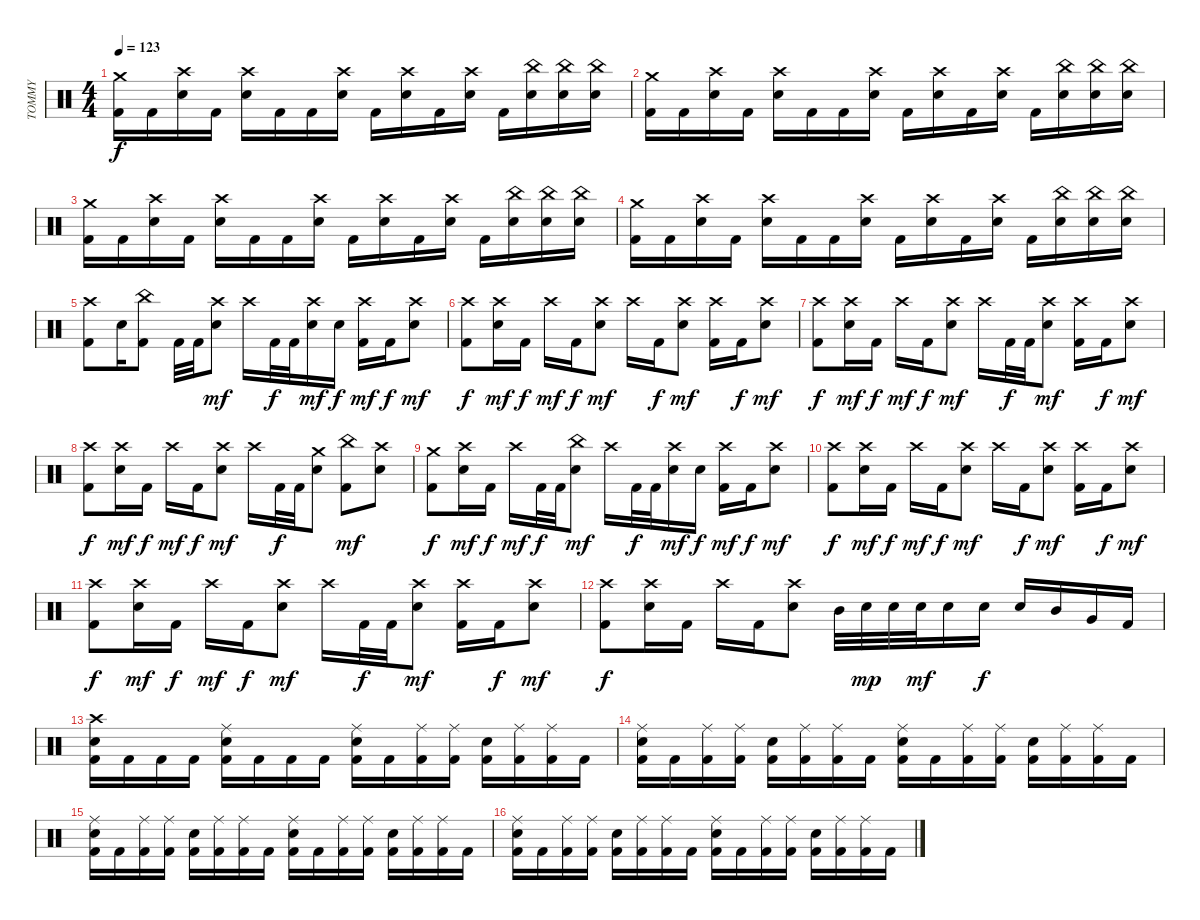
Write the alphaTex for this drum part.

\track ("TOMMY" "TOMMY") {instrument percussion}
\staff {score}
\articulation defaults
\ts (4 4)
\tempo 123
\clef neutral
\ks c
("Kick (hit) 2" "Crash medium (hit)").16{dy f} "Kick (hit) 2".16 ("Snare (hit) 2" "Crash high (hit)").16 "Kick (hit) 2".16 ("Snare (hit) 2" "Crash high (hit)").16 "Kick (hit) 2".16 "Kick (hit) 2".16 ("Snare (hit) 2" "Crash high (hit)").16 "Kick (hit) 2".16 ("Snare (hit) 2" "Crash high (hit)").16 "Kick (hit) 2".16 ("Snare (hit) 2" "Crash high (hit)").16 "Kick (hit) 2".16 ("Snare (hit) 2" "China (hit)").16 ("Snare (hit) 2" "China (hit)").16 ("Snare (hit) 2" "China (hit)").16 |
("Kick (hit) 2" "Crash medium (hit)").16 "Kick (hit) 2".16 ("Snare (hit) 2" "Crash high (hit)").16 "Kick (hit) 2".16 ("Snare (hit) 2" "Crash high (hit)").16 "Kick (hit) 2".16 "Kick (hit) 2".16 ("Snare (hit) 2" "Crash high (hit)").16 "Kick (hit) 2".16 ("Snare (hit) 2" "Crash high (hit)").16 "Kick (hit) 2".16 ("Snare (hit) 2" "Crash high (hit)").16 "Kick (hit) 2".16 ("Snare (hit) 2" "China (hit)").16 ("Snare (hit) 2" "China (hit)").16 ("Snare (hit) 2" "China (hit)").16 |
("Kick (hit) 2" "Crash medium (hit)").16 "Kick (hit) 2".16 ("Snare (hit) 2" "Crash high (hit)").16 "Kick (hit) 2".16 ("Snare (hit) 2" "Crash high (hit)").16 "Kick (hit) 2".16 "Kick (hit) 2".16 ("Snare (hit) 2" "Crash high (hit)").16 "Kick (hit) 2".16 ("Snare (hit) 2" "Crash high (hit)").16 "Kick (hit) 2".16 ("Snare (hit) 2" "Crash high (hit)").16 "Kick (hit) 2".16 ("Snare (hit) 2" "China (hit)").16 ("Snare (hit) 2" "China (hit)").16 ("Snare (hit) 2" "China (hit)").16 |
("Kick (hit) 2" "Crash medium (hit)").16 "Kick (hit) 2".16 ("Snare (hit) 2" "Crash high (hit)").16 "Kick (hit) 2".16 ("Snare (hit) 2" "Crash high (hit)").16 "Kick (hit) 2".16 "Kick (hit) 2".16 ("Snare (hit) 2" "Crash high (hit)").16 "Kick (hit) 2".16 ("Snare (hit) 2" "Crash high (hit)").16 "Kick (hit) 2".16 ("Snare (hit) 2" "Crash high (hit)").16 "Kick (hit) 2".16 ("Snare (hit) 2" "China (hit)").16 ("Snare (hit) 2" "China (hit)").16 ("Snare (hit) 2" "China (hit)").16 |
("Kick (hit) 2" "Crash high (hit)").8 "Snare (hit) 2".16 ("Kick (hit) 2" "China (hit)").8 "Kick (hit) 2".32 "Kick (hit) 2".32 ("Snare (hit) 2" "Crash high (hit)").8{dy mf} "Crash high (hit)".16 "Kick (hit) 2".32{dy f} "Kick (hit) 2".32 ("Snare (hit) 2" "Crash high (hit)").16{dy mf} "Snare (hit) 2".16{dy f} ("Kick (hit) 2" "Crash high (hit)").16{dy mf} "Kick (hit) 2".16{dy f} ("Snare (hit) 2" "Crash high (hit)").8{dy mf} |
("Kick (hit) 2" "Crash high (hit)").8{dy f} ("Snare (hit) 2" "Crash high (hit)").16{dy mf} "Kick (hit) 2".16{dy f} "Crash high (hit)".16{dy mf} "Kick (hit) 2".16{dy f} ("Snare (hit) 2" "Crash high (hit)").8{dy mf} "Crash high (hit)".16 "Kick (hit) 2".16{dy f} ("Snare (hit) 2" "Crash high (hit)").8{dy mf} ("Kick (hit) 2" "Crash high (hit)").16 "Kick (hit) 2".16{dy f} ("Snare (hit) 2" "Crash high (hit)").8{dy mf} |
("Kick (hit) 2" "Crash high (hit)").8{dy f} ("Snare (hit) 2" "Crash high (hit)").16{dy mf} "Kick (hit) 2".16{dy f} "Crash high (hit)".16{dy mf} "Kick (hit) 2".16{dy f} ("Snare (hit) 2" "Crash high (hit)").8{dy mf} "Crash high (hit)".16 "Kick (hit) 2".32{dy f} "Kick (hit) 2".32 ("Snare (hit) 2" "Crash high (hit)").8{dy mf} ("Kick (hit) 2" "Crash high (hit)").16 "Kick (hit) 2".16{dy f} ("Snare (hit) 2" "Crash high (hit)").8{dy mf} |
("Kick (hit) 2" "Crash high (hit)").8{dy f} ("Snare (hit) 2" "Crash high (hit)").16{dy mf} "Kick (hit) 2".16{dy f} "Crash high (hit)".16{dy mf} "Kick (hit) 2".16{dy f} ("Snare (hit) 2" "Crash high (hit)").8{dy mf} "Crash high (hit)".16 "Kick (hit) 2".32{dy f} "Kick (hit) 2".32 ("Snare (hit) 2" "Crash medium (hit)").8 ("Kick (hit) 2" "China (hit)").8{dy mf} ("Snare (hit) 2" "Crash high (hit)").8 |
("Kick (hit) 2" "Crash medium (hit)").8{dy f} ("Snare (hit) 2" "Crash high (hit)").16{dy mf} "Kick (hit) 2".16{dy f} "Crash high (hit)".16{dy mf} "Kick (hit) 2".32{dy f} "Kick (hit) 2".32 ("Snare (hit) 2" "China (hit)").8{dy mf} "Crash high (hit)".16 "Kick (hit) 2".32{dy f} "Kick (hit) 2".32 ("Snare (hit) 2" "Crash high (hit)").16{dy mf} "Snare (hit) 2".16{dy f} ("Kick (hit) 2" "Crash high (hit)").16{dy mf} "Kick (hit) 2".16{dy f} ("Snare (hit) 2" "Crash high (hit)").8{dy mf} |
("Kick (hit) 2" "Crash high (hit)").8{dy f} ("Snare (hit) 2" "Crash high (hit)").16{dy mf} "Kick (hit) 2".16{dy f} "Crash high (hit)".16{dy mf} "Kick (hit) 2".16{dy f} ("Snare (hit) 2" "Crash high (hit)").8{dy mf} "Crash high (hit)".16 "Kick (hit) 2".16{dy f} ("Snare (hit) 2" "Crash high (hit)").8{dy mf} ("Kick (hit) 2" "Crash high (hit)").16 "Kick (hit) 2".16{dy f} ("Snare (hit) 2" "Crash high (hit)").8{dy mf} |
("Kick (hit) 2" "Crash high (hit)").8{dy f} ("Snare (hit) 2" "Crash high (hit)").16{dy mf} "Kick (hit) 2".16{dy f} "Crash high (hit)".16{dy mf} "Kick (hit) 2".16{dy f} ("Snare (hit) 2" "Crash high (hit)").8{dy mf} "Crash high (hit)".16 "Kick (hit) 2".32{dy f} "Kick (hit) 2".32 ("Snare (hit) 2" "Crash high (hit)").8{dy mf} ("Kick (hit) 2" "Crash high (hit)").16 "Kick (hit) 2".16{dy f} ("Snare (hit) 2" "Crash high (hit)").8{dy mf} |
("Kick (hit) 2" "Crash high (hit)").8{dy f} ("Snare (hit) 2" "Crash high (hit)").16 "Kick (hit) 2".16 "Crash high (hit)".16 "Kick (hit) 2".16 ("Snare (hit) 2" "Crash high (hit)").8 "Mid Tom (hit)".32 "Snare (hit) 2".32{dy mp} "Snare (hit) 2".32 "Snare (hit) 2".32{dy mf} "Snare (hit) 2".16 "Snare (hit) 2".16{dy f} "Snare (hit) 2".16 "Mid Tom (hit)".16 "Very Low Tom (hit)".16 "Kick (hit) 2".16 |
("Snare (hit) 2" "Kick (hit) 2" "Crash high (hit)").16 "Kick (hit) 2".16 "Kick (hit) 2".16 "Kick (hit) 2".16 ("Snare (hit) 2" "Kick (hit) 2" "Ride (middle)").16 "Kick (hit) 2".16 "Kick (hit) 2".16 "Kick (hit) 2".16 ("Snare (hit) 2" "Kick (hit) 2" "Ride (middle)").16 "Kick (hit) 2".16 ("Kick (hit) 2" "Ride (middle)").16 ("Kick (hit) 2" "Ride (middle)").16 ("Snare (hit) 2" "Kick (hit) 2").16 ("Kick (hit) 2" "Ride (middle)").16 ("Kick (hit) 2" "Ride (middle)").16 "Kick (hit) 2".16 |
("Snare (hit) 2" "Kick (hit) 2" "Ride (middle)").16 "Kick (hit) 2".16 ("Kick (hit) 2" "Ride (middle)").16 ("Kick (hit) 2" "Ride (middle)").16 ("Snare (hit) 2" "Kick (hit) 2").16 ("Kick (hit) 2" "Ride (middle)").16 ("Kick (hit) 2" "Ride (middle)").16 "Kick (hit) 2".16 ("Snare (hit) 2" "Kick (hit) 2" "Ride (middle)").16 "Kick (hit) 2".16 ("Kick (hit) 2" "Ride (middle)").16 ("Kick (hit) 2" "Ride (middle)").16 ("Snare (hit) 2" "Kick (hit) 2").16 ("Kick (hit) 2" "Ride (middle)").16 ("Kick (hit) 2" "Ride (middle)").16 "Kick (hit) 2".16 |
("Snare (hit) 2" "Kick (hit) 2" "Ride (middle)").16 "Kick (hit) 2".16 ("Kick (hit) 2" "Ride (middle)").16 ("Kick (hit) 2" "Ride (middle)").16 ("Snare (hit) 2" "Kick (hit) 2").16 ("Kick (hit) 2" "Ride (middle)").16 ("Kick (hit) 2" "Ride (middle)").16 "Kick (hit) 2".16 ("Snare (hit) 2" "Kick (hit) 2" "Ride (middle)").16 "Kick (hit) 2".16 ("Kick (hit) 2" "Ride (middle)").16 ("Kick (hit) 2" "Ride (middle)").16 ("Snare (hit) 2" "Kick (hit) 2").16 ("Kick (hit) 2" "Ride (middle)").16 ("Kick (hit) 2" "Ride (middle)").16 "Kick (hit) 2".16 |
("Snare (hit) 2" "Kick (hit) 2" "Ride (middle)").16 "Kick (hit) 2".16 ("Kick (hit) 2" "Ride (middle)").16 ("Kick (hit) 2" "Ride (middle)").16 ("Snare (hit) 2" "Kick (hit) 2").16 ("Kick (hit) 2" "Ride (middle)").16 ("Kick (hit) 2" "Ride (middle)").16 "Kick (hit) 2".16 ("Snare (hit) 2" "Kick (hit) 2" "Ride (middle)").16 "Kick (hit) 2".16 ("Kick (hit) 2" "Ride (middle)").16 ("Kick (hit) 2" "Ride (middle)").16 ("Snare (hit) 2" "Kick (hit) 2").16 ("Kick (hit) 2" "Ride (middle)").16 ("Kick (hit) 2" "Ride (middle)").16 "Kick (hit) 2".16
